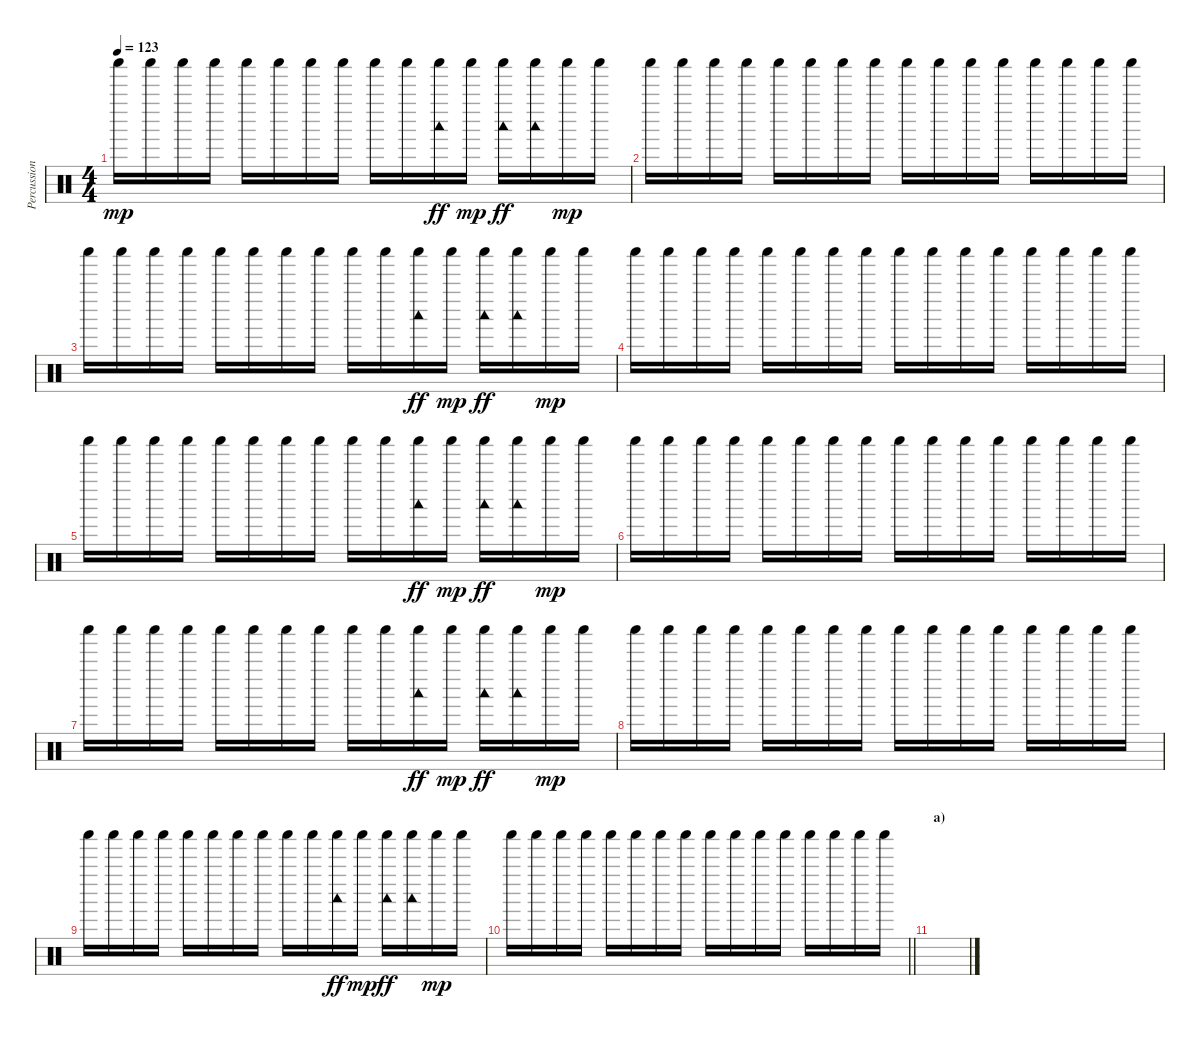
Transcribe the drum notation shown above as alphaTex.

\track ("Percussion" "Percussion") {instrument percussion}
\staff {score}
\articulation defaults
\ts (4 4)
\tempo 123
\clef neutral
\ks c "Shaker (hit)".16{dy mp} "Shaker (hit)".16 "Shaker (hit)".16 "Shaker (hit)".16 "Shaker (hit)".16 "Shaker (hit)".16 "Shaker (hit)".16 "Shaker (hit)".16 "Shaker (hit)".16 "Shaker (hit)".16
("Shaker (hit)" "Woodblock low (hit)").16{dy ff} "Shaker (hit)".16{dy mp} ("Shaker (hit)" "Woodblock low (hit)").16{dy ff} ("Shaker (hit)" "Woodblock low (hit)").16 "Shaker (hit)".16{dy mp} "Shaker (hit)".16 |
"Shaker (hit)".16 "Shaker (hit)".16 "Shaker (hit)".16 "Shaker (hit)".16 "Shaker (hit)".16 "Shaker (hit)".16 "Shaker (hit)".16 "Shaker (hit)".16 "Shaker (hit)".16 "Shaker (hit)".16 "Shaker (hit)".16 "Shaker (hit)".16 "Shaker (hit)".16 "Shaker (hit)".16 "Shaker (hit)".16 "Shaker (hit)".16 |
"Shaker (hit)".16 "Shaker (hit)".16 "Shaker (hit)".16 "Shaker (hit)".16 "Shaker (hit)".16 "Shaker (hit)".16 "Shaker (hit)".16 "Shaker (hit)".16 "Shaker (hit)".16 "Shaker (hit)".16 ("Shaker (hit)" "Woodblock low (hit)").16{dy ff} "Shaker (hit)".16{dy mp} ("Shaker (hit)" "Woodblock low (hit)").16{dy ff} ("Shaker (hit)" "Woodblock low (hit)").16 "Shaker (hit)".16{dy mp} "Shaker (hit)".16 |
"Shaker (hit)".16 "Shaker (hit)".16 "Shaker (hit)".16 "Shaker (hit)".16 "Shaker (hit)".16 "Shaker (hit)".16 "Shaker (hit)".16 "Shaker (hit)".16 "Shaker (hit)".16 "Shaker (hit)".16 "Shaker (hit)".16 "Shaker (hit)".16 "Shaker (hit)".16 "Shaker (hit)".16 "Shaker (hit)".16 "Shaker (hit)".16 |
"Shaker (hit)".16 "Shaker (hit)".16 "Shaker (hit)".16 "Shaker (hit)".16 "Shaker (hit)".16 "Shaker (hit)".16 "Shaker (hit)".16 "Shaker (hit)".16 "Shaker (hit)".16 "Shaker (hit)".16 ("Shaker (hit)" "Woodblock low (hit)").16{dy ff} "Shaker (hit)".16{dy mp} ("Shaker (hit)" "Woodblock low (hit)").16{dy ff} ("Shaker (hit)" "Woodblock low (hit)").16 "Shaker (hit)".16{dy mp} "Shaker (hit)".16 |
"Shaker (hit)".16 "Shaker (hit)".16 "Shaker (hit)".16 "Shaker (hit)".16 "Shaker (hit)".16 "Shaker (hit)".16 "Shaker (hit)".16 "Shaker (hit)".16 "Shaker (hit)".16 "Shaker (hit)".16 "Shaker (hit)".16 "Shaker (hit)".16 "Shaker (hit)".16 "Shaker (hit)".16 "Shaker (hit)".16 "Shaker (hit)".16 |
"Shaker (hit)".16 "Shaker (hit)".16 "Shaker (hit)".16 "Shaker (hit)".16 "Shaker (hit)".16 "Shaker (hit)".16 "Shaker (hit)".16 "Shaker (hit)".16 "Shaker (hit)".16 "Shaker (hit)".16 ("Shaker (hit)" "Woodblock low (hit)").16{dy ff} "Shaker (hit)".16{dy mp} ("Shaker (hit)" "Woodblock low (hit)").16{dy ff} ("Shaker (hit)" "Woodblock low (hit)").16 "Shaker (hit)".16{dy mp} "Shaker (hit)".16 |
"Shaker (hit)".16 "Shaker (hit)".16 "Shaker (hit)".16 "Shaker (hit)".16 "Shaker (hit)".16 "Shaker (hit)".16 "Shaker (hit)".16 "Shaker (hit)".16 "Shaker (hit)".16 "Shaker (hit)".16 "Shaker (hit)".16 "Shaker (hit)".16 "Shaker (hit)".16 "Shaker (hit)".16 "Shaker (hit)".16 "Shaker (hit)".16 |
"Shaker (hit)".16 "Shaker (hit)".16 "Shaker (hit)".16 "Shaker (hit)".16 "Shaker (hit)".16 "Shaker (hit)".16 "Shaker (hit)".16 "Shaker (hit)".16 "Shaker (hit)".16 "Shaker (hit)".16 ("Shaker (hit)" "Woodblock low (hit)").16{dy ff} "Shaker (hit)".16{dy mp} ("Shaker (hit)" "Woodblock low (hit)").16{dy ff} ("Shaker (hit)" "Woodblock low (hit)").16 "Shaker (hit)".16{dy mp} "Shaker (hit)".16 |
\barLineRight lightlight "Shaker (hit)".16 "Shaker (hit)".16 "Shaker (hit)".16 "Shaker (hit)".16 "Shaker (hit)".16 "Shaker (hit)".16 "Shaker (hit)".16 "Shaker (hit)".16 "Shaker (hit)".16 "Shaker (hit)".16 "Shaker (hit)".16 "Shaker (hit)".16 "Shaker (hit)".16 "Shaker (hit)".16 "Shaker (hit)".16 "Shaker (hit)".16
|
\section ("" "a)")
